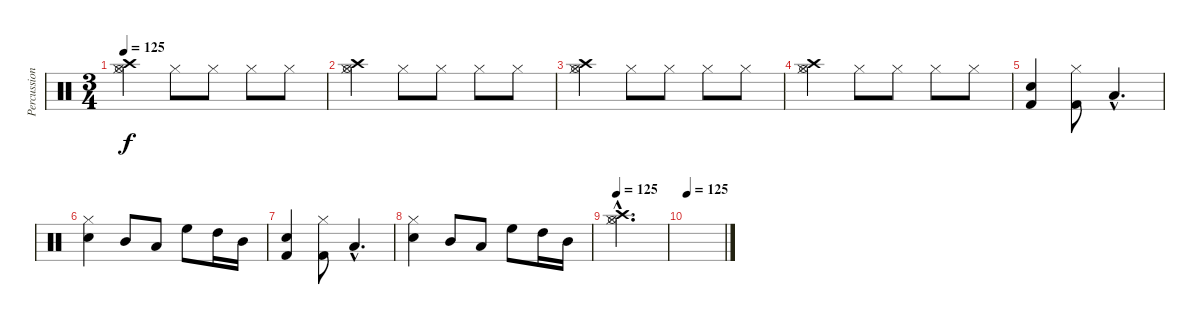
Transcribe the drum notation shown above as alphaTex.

\track ("Percussion" "Percussion") {instrument percussion}
\staff {score}
\articulation defaults
\ts (3 4)
\tempo 125
\clef neutral
\ks c
("Hi-Hat (open)" "Crash high (hit)" "Hi-Hat (closed)").4{dy f} "Hi-Hat (closed)".8 "Hi-Hat (closed)".8 "Hi-Hat (closed)".8 "Hi-Hat (closed)".8 |
("Hi-Hat (open)" "Crash high (hit)" "Hi-Hat (closed)").4 "Hi-Hat (closed)".8 "Hi-Hat (closed)".8 "Hi-Hat (closed)".8 "Hi-Hat (closed)".8 |
("Hi-Hat (open)" "Crash high (hit)" "Hi-Hat (closed)").4 "Hi-Hat (closed)".8 "Hi-Hat (closed)".8 "Hi-Hat (closed)".8 "Hi-Hat (closed)".8 |
("Hi-Hat (open)" "Crash high (hit)" "Hi-Hat (closed)").4 "Hi-Hat (closed)".8 "Hi-Hat (closed)".8 "Hi-Hat (closed)".8 "Hi-Hat (closed)".8 |
("Kick (hit) 2" "Snare (hit) 2").4 ("Kick (hit) 2" "Hi-Hat (closed)").8 "Low Tom (hit)"{hac}.4{d} |
("Snare (hit) 2" "Hi-Hat (closed)").4 "Mid Tom (hit)".8 "Low Tom (hit)".8 "High Floor Tom (hit)".8 "High Tom (hit)".16 "Mid Tom (hit)".16 |
("Kick (hit) 2" "Snare (hit) 2").4 ("Kick (hit) 2" "Hi-Hat (closed)").8 "Low Tom (hit)"{hac}.4{d} |
("Snare (hit) 2" "Hi-Hat (closed)").4 "Mid Tom (hit)".8 "Low Tom (hit)".8 "High Floor Tom (hit)".8 "High Tom (hit)".16 "Mid Tom (hit)".16 |
\tempo 125
("Hi-Hat (open)"{hac} "Crash high (hit)"{hac} "Hi-Hat (closed)"{hac}).2{d} |
\tempo 125
